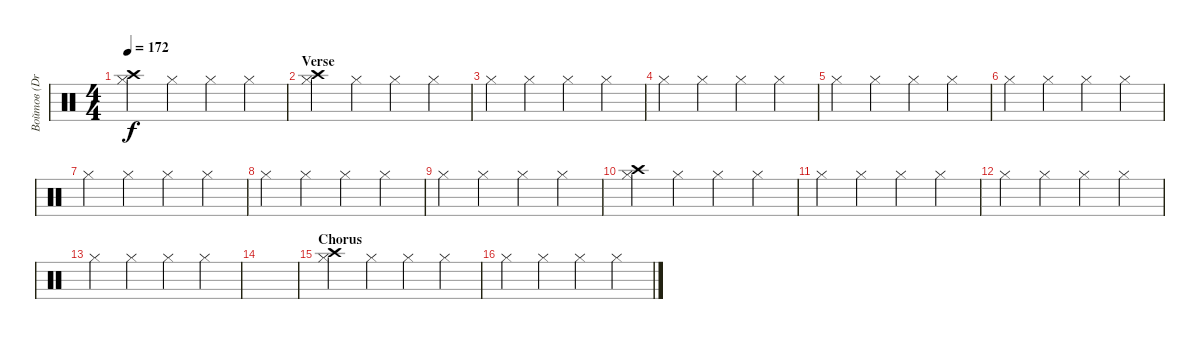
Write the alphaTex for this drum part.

\track ("Войтов (Drums)" "Войтов (Dr") {instrument percussion}
\staff {score}
\articulation defaults
\ts (4 4)
\tempo 172
\clef neutral
\ks c
("Crash high (hit)" "Hi-Hat (closed)").4{dy f} "Hi-Hat (closed)".4 "Hi-Hat (closed)".4 "Hi-Hat (closed)".4 |
\section ("" "Verse")
("Crash high (hit)" "Hi-Hat (closed)").4 "Hi-Hat (closed)".4 "Hi-Hat (closed)".4 "Hi-Hat (closed)".4 |
"Hi-Hat (closed)".4 "Hi-Hat (closed)".4 "Hi-Hat (closed)".4 "Hi-Hat (closed)".4 |
"Hi-Hat (closed)".4 "Hi-Hat (closed)".4 "Hi-Hat (closed)".4 "Hi-Hat (closed)".4 |
"Hi-Hat (closed)".4 "Hi-Hat (closed)".4 "Hi-Hat (closed)".4 "Hi-Hat (closed)".4 |
"Hi-Hat (closed)".4 "Hi-Hat (closed)".4 "Hi-Hat (closed)".4 "Hi-Hat (closed)".4 |
"Hi-Hat (closed)".4 "Hi-Hat (closed)".4 "Hi-Hat (closed)".4 "Hi-Hat (closed)".4 |
"Hi-Hat (closed)".4 "Hi-Hat (closed)".4 "Hi-Hat (closed)".4 "Hi-Hat (closed)".4 |
"Hi-Hat (closed)".4 "Hi-Hat (closed)".4 "Hi-Hat (closed)".4 "Hi-Hat (closed)".4 |
("Hi-Hat (closed)" "Crash high (hit)").4 "Hi-Hat (closed)".4 "Hi-Hat (closed)".4 "Hi-Hat (closed)".4 |
"Hi-Hat (closed)".4 "Hi-Hat (closed)".4 "Hi-Hat (closed)".4 "Hi-Hat (closed)".4 |
"Hi-Hat (closed)".4 "Hi-Hat (closed)".4 "Hi-Hat (closed)".4 "Hi-Hat (closed)".4 |
"Hi-Hat (closed)".4 "Hi-Hat (closed)".4 "Hi-Hat (closed)".4 "Hi-Hat (closed)".4 |
|
\section ("" "Chorus")
("Crash high (hit)" "Hi-Hat (closed)").4 "Hi-Hat (closed)".4 "Hi-Hat (closed)".4 "Hi-Hat (closed)".4 |
"Hi-Hat (closed)".4 "Hi-Hat (closed)".4 "Hi-Hat (closed)".4 "Hi-Hat (closed)".4
